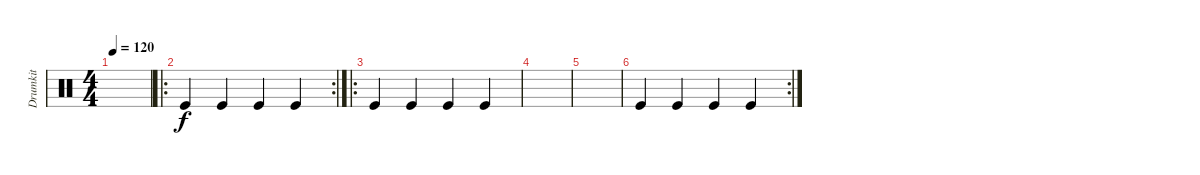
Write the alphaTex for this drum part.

\track ("Drumkit" "Drumkit") {instrument percussion}
\staff {score}
\articulation defaults
\ts (4 4)
\tempo 120
\clef neutral
\ks c
|
\ro
\rc 2 "Kick (hit)".4 "Kick (hit)".4 "Kick (hit)".4 "Kick (hit)".4
|
\ro "Kick (hit)".4 "Kick (hit)".4 "Kick (hit)".4 "Kick (hit)".4
|
|
|
\rc 2 "Kick (hit)".4 "Kick (hit)".4 "Kick (hit)".4 "Kick (hit)".4
